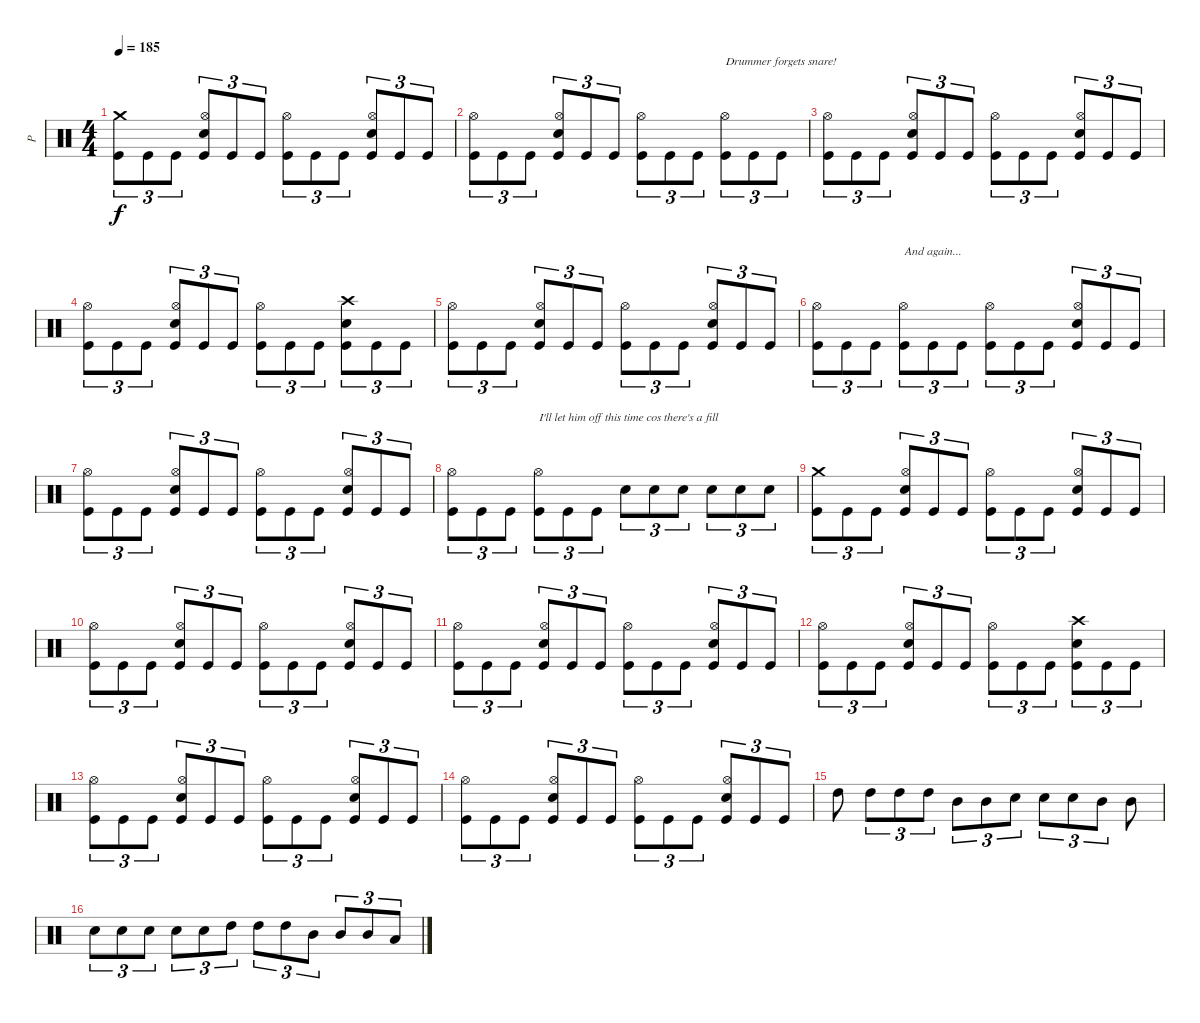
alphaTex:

\track ("P" "P") {instrument percussion}
\staff {score}
\articulation defaults
\ts (4 4)
\tempo 185
\clef neutral
\ks c
("Crash medium (hit)" "Kick (hit)").8{tu (3 2) dy f} "Kick (hit)".8{tu (3 2)} "Kick (hit)".8{tu (3 2)} ("Hi-Hat (open)" "Electric Snare (hit)" "Kick (hit)").8{tu (3 2)} "Kick (hit)".8{tu (3 2)} "Kick (hit)".8{tu (3 2)} ("Hi-Hat (open)" "Kick (hit)").8{tu (3 2)} "Kick (hit)".8{tu (3 2)} "Kick (hit)".8{tu (3 2)} ("Hi-Hat (open)" "Electric Snare (hit)" "Kick (hit)").8{tu (3 2)} "Kick (hit)".8{tu (3 2)} "Kick (hit)".8{tu (3 2)} |
("Hi-Hat (open)" "Kick (hit)").8{tu (3 2)} "Kick (hit)".8{tu (3 2)} "Kick (hit)".8{tu (3 2)} ("Hi-Hat (open)" "Electric Snare (hit)" "Kick (hit)").8{tu (3 2)} "Kick (hit)".8{tu (3 2)} "Kick (hit)".8{tu (3 2)} ("Hi-Hat (open)" "Kick (hit)").8{tu (3 2)} "Kick (hit)".8{tu (3 2)} "Kick (hit)".8{tu (3 2)} ("Hi-Hat (open)" "Kick (hit)").8{tu (3 2) txt "Drummer forgets snare!"} "Kick (hit)".8{tu (3 2)} "Kick (hit)".8{tu (3 2)} |
("Hi-Hat (open)" "Kick (hit)").8{tu (3 2)} "Kick (hit)".8{tu (3 2)} "Kick (hit)".8{tu (3 2)} ("Hi-Hat (open)" "Electric Snare (hit)" "Kick (hit)").8{tu (3 2)} "Kick (hit)".8{tu (3 2)} "Kick (hit)".8{tu (3 2)} ("Hi-Hat (open)" "Kick (hit)").8{tu (3 2)} "Kick (hit)".8{tu (3 2)} "Kick (hit)".8{tu (3 2)} ("Hi-Hat (open)" "Electric Snare (hit)" "Kick (hit)").8{tu (3 2)} "Kick (hit)".8{tu (3 2)} "Kick (hit)".8{tu (3 2)} |
("Hi-Hat (open)" "Kick (hit)").8{tu (3 2)} "Kick (hit)".8{tu (3 2)} "Kick (hit)".8{tu (3 2)} ("Hi-Hat (open)" "Electric Snare (hit)" "Kick (hit)").8{tu (3 2)} "Kick (hit)".8{tu (3 2)} "Kick (hit)".8{tu (3 2)} ("Hi-Hat (open)" "Kick (hit)").8{tu (3 2)} "Kick (hit)".8{tu (3 2)} "Kick (hit)".8{tu (3 2)} ("Crash high (hit)" "Electric Snare (hit)" "Kick (hit)").8{tu (3 2)} "Kick (hit)".8{tu (3 2)} "Kick (hit)".8{tu (3 2)} |
("Hi-Hat (open)" "Kick (hit)").8{tu (3 2)} "Kick (hit)".8{tu (3 2)} "Kick (hit)".8{tu (3 2)} ("Hi-Hat (open)" "Electric Snare (hit)" "Kick (hit)").8{tu (3 2)} "Kick (hit)".8{tu (3 2)} "Kick (hit)".8{tu (3 2)} ("Hi-Hat (open)" "Kick (hit)").8{tu (3 2)} "Kick (hit)".8{tu (3 2)} "Kick (hit)".8{tu (3 2)} ("Hi-Hat (open)" "Electric Snare (hit)" "Kick (hit)").8{tu (3 2)} "Kick (hit)".8{tu (3 2)} "Kick (hit)".8{tu (3 2)} |
("Hi-Hat (open)" "Kick (hit)").8{tu (3 2)} "Kick (hit)".8{tu (3 2)} "Kick (hit)".8{tu (3 2)} ("Hi-Hat (open)" "Kick (hit)").8{tu (3 2) txt "And again..."} "Kick (hit)".8{tu (3 2)} "Kick (hit)".8{tu (3 2)} ("Hi-Hat (open)" "Kick (hit)").8{tu (3 2)} "Kick (hit)".8{tu (3 2)} "Kick (hit)".8{tu (3 2)} ("Hi-Hat (open)" "Electric Snare (hit)" "Kick (hit)").8{tu (3 2)} "Kick (hit)".8{tu (3 2)} "Kick (hit)".8{tu (3 2)} |
("Hi-Hat (open)" "Kick (hit)").8{tu (3 2)} "Kick (hit)".8{tu (3 2)} "Kick (hit)".8{tu (3 2)} ("Hi-Hat (open)" "Electric Snare (hit)" "Kick (hit)").8{tu (3 2)} "Kick (hit)".8{tu (3 2)} "Kick (hit)".8{tu (3 2)} ("Hi-Hat (open)" "Kick (hit)").8{tu (3 2)} "Kick (hit)".8{tu (3 2)} "Kick (hit)".8{tu (3 2)} ("Hi-Hat (open)" "Electric Snare (hit)" "Kick (hit)").8{tu (3 2)} "Kick (hit)".8{tu (3 2)} "Kick (hit)".8{tu (3 2)} |
("Hi-Hat (open)" "Kick (hit)").8{tu (3 2)} "Kick (hit)".8{tu (3 2)} "Kick (hit)".8{tu (3 2)} ("Hi-Hat (open)" "Kick (hit)").8{tu (3 2) txt "I'll let him off this time cos there's a fill"} "Kick (hit)".8{tu (3 2)} "Kick (hit)".8{tu (3 2)} "Electric Snare (hit)".8{tu (3 2)} "Electric Snare (hit)".8{tu (3 2)} "Electric Snare (hit)".8{tu (3 2)} "Electric Snare (hit)".8{tu (3 2)} "Electric Snare (hit)".8{tu (3 2)} "Electric Snare (hit)".8{tu (3 2)} |
("Crash medium (hit)" "Kick (hit)").8{tu (3 2)} "Kick (hit)".8{tu (3 2)} "Kick (hit)".8{tu (3 2)} ("Hi-Hat (open)" "Electric Snare (hit)" "Kick (hit)").8{tu (3 2)} "Kick (hit)".8{tu (3 2)} "Kick (hit)".8{tu (3 2)} ("Hi-Hat (open)" "Kick (hit)").8{tu (3 2)} "Kick (hit)".8{tu (3 2)} "Kick (hit)".8{tu (3 2)} ("Hi-Hat (open)" "Electric Snare (hit)" "Kick (hit)").8{tu (3 2)} "Kick (hit)".8{tu (3 2)} "Kick (hit)".8{tu (3 2)} |
("Hi-Hat (open)" "Kick (hit)").8{tu (3 2)} "Kick (hit)".8{tu (3 2)} "Kick (hit)".8{tu (3 2)} ("Hi-Hat (open)" "Electric Snare (hit)" "Kick (hit)").8{tu (3 2)} "Kick (hit)".8{tu (3 2)} "Kick (hit)".8{tu (3 2)} ("Hi-Hat (open)" "Kick (hit)").8{tu (3 2)} "Kick (hit)".8{tu (3 2)} "Kick (hit)".8{tu (3 2)} ("Hi-Hat (open)" "Electric Snare (hit)" "Kick (hit)").8{tu (3 2)} "Kick (hit)".8{tu (3 2)} "Kick (hit)".8{tu (3 2)} |
("Hi-Hat (open)" "Kick (hit)").8{tu (3 2)} "Kick (hit)".8{tu (3 2)} "Kick (hit)".8{tu (3 2)} ("Hi-Hat (open)" "Electric Snare (hit)" "Kick (hit)").8{tu (3 2)} "Kick (hit)".8{tu (3 2)} "Kick (hit)".8{tu (3 2)} ("Hi-Hat (open)" "Kick (hit)").8{tu (3 2)} "Kick (hit)".8{tu (3 2)} "Kick (hit)".8{tu (3 2)} ("Hi-Hat (open)" "Electric Snare (hit)" "Kick (hit)").8{tu (3 2)} "Kick (hit)".8{tu (3 2)} "Kick (hit)".8{tu (3 2)} |
("Hi-Hat (open)" "Kick (hit)").8{tu (3 2)} "Kick (hit)".8{tu (3 2)} "Kick (hit)".8{tu (3 2)} ("Hi-Hat (open)" "Electric Snare (hit)" "Kick (hit)").8{tu (3 2)} "Kick (hit)".8{tu (3 2)} "Kick (hit)".8{tu (3 2)} ("Hi-Hat (open)" "Kick (hit)").8{tu (3 2)} "Kick (hit)".8{tu (3 2)} "Kick (hit)".8{tu (3 2)} ("Crash high (hit)" "Electric Snare (hit)" "Kick (hit)").8{tu (3 2)} "Kick (hit)".8{tu (3 2)} "Kick (hit)".8{tu (3 2)} |
("Hi-Hat (open)" "Kick (hit)").8{tu (3 2)} "Kick (hit)".8{tu (3 2)} "Kick (hit)".8{tu (3 2)} ("Hi-Hat (open)" "Electric Snare (hit)" "Kick (hit)").8{tu (3 2)} "Kick (hit)".8{tu (3 2)} "Kick (hit)".8{tu (3 2)} ("Hi-Hat (open)" "Kick (hit)").8{tu (3 2)} "Kick (hit)".8{tu (3 2)} "Kick (hit)".8{tu (3 2)} ("Hi-Hat (open)" "Electric Snare (hit)" "Kick (hit)").8{tu (3 2)} "Kick (hit)".8{tu (3 2)} "Kick (hit)".8{tu (3 2)} |
("Hi-Hat (open)" "Kick (hit)").8{tu (3 2)} "Kick (hit)".8{tu (3 2)} "Kick (hit)".8{tu (3 2)} ("Hi-Hat (open)" "Electric Snare (hit)" "Kick (hit)").8{tu (3 2)} "Kick (hit)".8{tu (3 2)} "Kick (hit)".8{tu (3 2)} ("Hi-Hat (open)" "Kick (hit)").8{tu (3 2)} "Kick (hit)".8{tu (3 2)} "Kick (hit)".8{tu (3 2)} ("Hi-Hat (open)" "Electric Snare (hit)" "Kick (hit)").8{tu (3 2)} "Kick (hit)".8{tu (3 2)} "Kick (hit)".8{tu (3 2)} |
"High Tom (hit)".8 "High Tom (hit)".8{tu (3 2)} "High Tom (hit)".8{tu (3 2)} "High Tom (hit)".8{tu (3 2)} "Mid Tom (hit)".8{tu (3 2)} "Mid Tom (hit)".8{tu (3 2)} "Electric Snare (hit)".8{tu (3 2)} "Electric Snare (hit)".8{tu (3 2)} "Electric Snare (hit)".8{tu (3 2)} "Mid Tom (hit)".8{tu (3 2)} "Mid Tom (hit)".8 |
"Electric Snare (hit)".8{tu (3 2)} "Electric Snare (hit)".8{tu (3 2)} "Electric Snare (hit)".8{tu (3 2)} "Electric Snare (hit)".8{tu (3 2)} "Electric Snare (hit)".8{tu (3 2)} "High Tom (hit)".8{tu (3 2)} "High Tom (hit)".8{tu (3 2)} "High Tom (hit)".8{tu (3 2)} "Mid Tom (hit)".8{tu (3 2)} "Mid Tom (hit)".8{tu (3 2)} "Mid Tom (hit)".8{tu (3 2)} "Low Tom (hit)".8{tu (3 2)}
